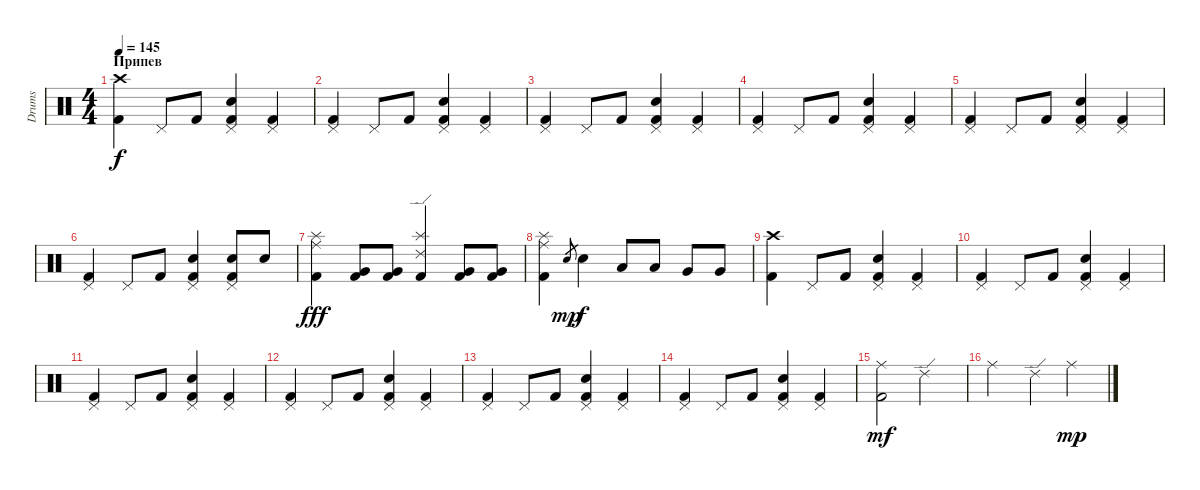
\track ("Drums" "Drums") {instrument percussion}
\staff {score}
\articulation defaults
\ts (4 4)
\section ("" "Припев")
\tempo 145
\clef neutral
\ks c
("Crash high (hit)" "Kick (hit) 2").4{dy f} "Pedal Hi-Hat (hit)".8 "Kick (hit) 2".8 ("Pedal Hi-Hat (hit)" "Electric Snare (hit)" "Kick (hit) 2").4 ("Pedal Hi-Hat (hit)" "Kick (hit) 2").4 |
("Pedal Hi-Hat (hit)" "Kick (hit) 2").4 "Pedal Hi-Hat (hit)".8 "Kick (hit) 2".8 ("Pedal Hi-Hat (hit)" "Electric Snare (hit)" "Kick (hit) 2").4 ("Pedal Hi-Hat (hit)" "Kick (hit) 2").4 |
("Pedal Hi-Hat (hit)" "Kick (hit) 2").4 "Pedal Hi-Hat (hit)".8 "Kick (hit) 2".8 ("Pedal Hi-Hat (hit)" "Electric Snare (hit)" "Kick (hit) 2").4 ("Pedal Hi-Hat (hit)" "Kick (hit) 2").4 |
("Pedal Hi-Hat (hit)" "Kick (hit) 2").4 "Pedal Hi-Hat (hit)".8 "Kick (hit) 2".8 ("Pedal Hi-Hat (hit)" "Electric Snare (hit)" "Kick (hit) 2").4 ("Pedal Hi-Hat (hit)" "Kick (hit) 2").4 |
("Pedal Hi-Hat (hit)" "Kick (hit) 2").4 "Pedal Hi-Hat (hit)".8 "Kick (hit) 2".8 ("Pedal Hi-Hat (hit)" "Electric Snare (hit)" "Kick (hit) 2").4 ("Pedal Hi-Hat (hit)" "Kick (hit) 2").4 |
("Pedal Hi-Hat (hit)" "Kick (hit) 2").4 "Pedal Hi-Hat (hit)".8 "Kick (hit) 2".8 ("Pedal Hi-Hat (hit)" "Electric Snare (hit)" "Kick (hit) 2").4 ("Pedal Hi-Hat (hit)" "Electric Snare (hit)" "Kick (hit) 2").8 "Electric Snare (hit)".8 |
("Ride (middle)" "Splash (hit)" "Kick (hit) 2").4{dy fff} ("Very Low Tom (hit)" "Kick (hit) 2").8 ("Very Low Tom (hit)" "Kick (hit) 2").8 ("Ride (edge) 2" "Splash (hit)" "Kick (hit) 2").4 ("Very Low Tom (hit)" "Kick (hit) 2").8 ("Very Low Tom (hit)" "Kick (hit) 2").8 |
("Ride (middle)" "Splash (hit)" "Kick (hit) 2").4 "Electric Snare (hit)".8{gr dy mp} "Electric Snare (hit)".4{dy f} "Low Tom (hit)".8 "Low Tom (hit)".8 "Very Low Tom (hit)".8 "Very Low Tom (hit)".8 |
("Crash high (hit)" "Kick (hit) 2").4 "Pedal Hi-Hat (hit)".8 "Kick (hit) 2".8 ("Pedal Hi-Hat (hit)" "Electric Snare (hit)" "Kick (hit) 2").4 ("Pedal Hi-Hat (hit)" "Kick (hit) 2").4 |
("Pedal Hi-Hat (hit)" "Kick (hit) 2").4 "Pedal Hi-Hat (hit)".8 "Kick (hit) 2".8 ("Pedal Hi-Hat (hit)" "Electric Snare (hit)" "Kick (hit) 2").4 ("Pedal Hi-Hat (hit)" "Kick (hit) 2").4 |
("Pedal Hi-Hat (hit)" "Kick (hit) 2").4 "Pedal Hi-Hat (hit)".8 "Kick (hit) 2".8 ("Pedal Hi-Hat (hit)" "Electric Snare (hit)" "Kick (hit) 2").4 ("Pedal Hi-Hat (hit)" "Kick (hit) 2").4 |
("Pedal Hi-Hat (hit)" "Kick (hit) 2").4 "Pedal Hi-Hat (hit)".8 "Kick (hit) 2".8 ("Pedal Hi-Hat (hit)" "Electric Snare (hit)" "Kick (hit) 2").4 ("Pedal Hi-Hat (hit)" "Kick (hit) 2").4 |
("Pedal Hi-Hat (hit)" "Kick (hit) 2").4 "Pedal Hi-Hat (hit)".8 "Kick (hit) 2".8 ("Pedal Hi-Hat (hit)" "Electric Snare (hit)" "Kick (hit) 2").4 ("Pedal Hi-Hat (hit)" "Kick (hit) 2").4 |
("Pedal Hi-Hat (hit)" "Kick (hit) 2").4 "Pedal Hi-Hat (hit)".8 "Kick (hit) 2".8 ("Pedal Hi-Hat (hit)" "Electric Snare (hit)" "Kick (hit) 2").4 ("Pedal Hi-Hat (hit)" "Kick (hit) 2").4 |
("Ride (middle)" "Kick (hit) 2").2{dy mf} "Ride (edge) 2".2 |
"Ride (middle)".2 "Ride (edge) 2".4 "Ride (middle)".4{dy mp}
